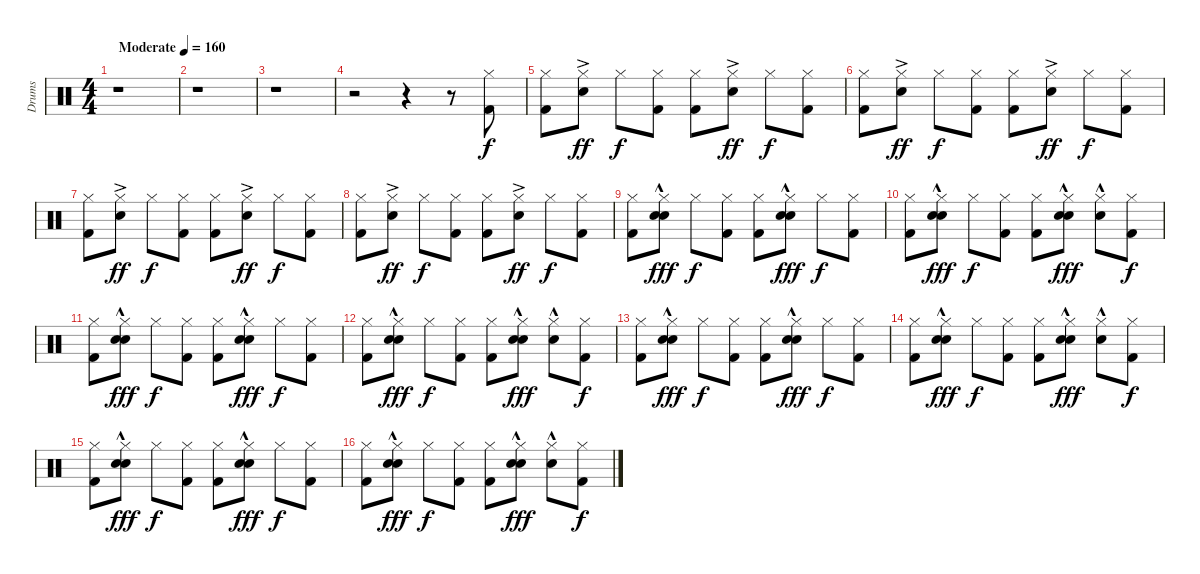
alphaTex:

\track ("Drums" "Drums") {instrument percussion}
\staff {score}
\articulation defaults
\ts (4 4)
\tempo (160 "Moderate")
\clef neutral
\ks c
r.1{dy f} |
r.1 |
r.1 |
r.2 r.4 r.8 ("Hi-Hat (closed)" "Kick (hit) 2").8 |
("Hi-Hat (closed)" "Kick (hit) 2").8 ("Hi-Hat (closed)" "Electric Snare (hit)"{ac}).8{dy ff} "Hi-Hat (closed)".8{dy f} ("Hi-Hat (closed)" "Kick (hit) 2").8 ("Hi-Hat (closed)" "Kick (hit) 2").8 ("Hi-Hat (closed)" "Electric Snare (hit)"{ac}).8{dy ff} "Hi-Hat (closed)".8{dy f} ("Hi-Hat (closed)" "Kick (hit) 2").8 |
("Hi-Hat (closed)" "Kick (hit) 2").8 ("Hi-Hat (closed)" "Electric Snare (hit)"{ac}).8{dy ff} "Hi-Hat (closed)".8{dy f} ("Hi-Hat (closed)" "Kick (hit) 2").8 ("Hi-Hat (closed)" "Kick (hit) 2").8 ("Hi-Hat (closed)" "Electric Snare (hit)"{ac}).8{dy ff} "Hi-Hat (closed)".8{dy f} ("Hi-Hat (closed)" "Kick (hit) 2").8 |
("Hi-Hat (closed)" "Kick (hit) 2").8 ("Hi-Hat (closed)" "Electric Snare (hit)"{ac}).8{dy ff} "Hi-Hat (closed)".8{dy f} ("Hi-Hat (closed)" "Kick (hit) 2").8 ("Hi-Hat (closed)" "Kick (hit) 2").8 ("Hi-Hat (closed)" "Electric Snare (hit)"{ac}).8{dy ff} "Hi-Hat (closed)".8{dy f} ("Hi-Hat (closed)" "Kick (hit) 2").8 |
("Hi-Hat (closed)" "Kick (hit) 2").8 ("Hi-Hat (closed)" "Electric Snare (hit)"{ac}).8{dy ff} "Hi-Hat (closed)".8{dy f} ("Hi-Hat (closed)" "Kick (hit) 2").8 ("Hi-Hat (closed)" "Kick (hit) 2").8 ("Hi-Hat (closed)" "Electric Snare (hit)"{ac}).8{dy ff} "Hi-Hat (closed)".8{dy f} ("Hi-Hat (closed)" "Kick (hit) 2").8 |
("Hi-Hat (closed)" "Kick (hit) 2").8 ("Hi-Hat (closed)" "Electric Snare (hit)" "Hand Clap (hit)"{hac}).8{dy fff} "Hi-Hat (closed)".8{dy f} ("Hi-Hat (closed)" "Kick (hit) 2").8 ("Hi-Hat (closed)" "Kick (hit) 2").8 ("Hi-Hat (closed)" "Electric Snare (hit)" "Hand Clap (hit)"{hac}).8{dy fff} "Hi-Hat (closed)".8{dy f} ("Hi-Hat (closed)" "Kick (hit) 2").8 |
("Hi-Hat (closed)" "Kick (hit) 2").8 ("Hi-Hat (closed)" "Electric Snare (hit)" "Hand Clap (hit)"{hac}).8{dy fff} "Hi-Hat (closed)".8{dy f} ("Hi-Hat (closed)" "Kick (hit) 2").8 ("Hi-Hat (closed)" "Kick (hit) 2").8 ("Hi-Hat (closed)" "Electric Snare (hit)" "Hand Clap (hit)"{hac}).8{dy fff} ("Hi-Hat (closed)" "Hand Clap (hit)"{hac}).8 ("Hi-Hat (closed)" "Kick (hit) 2").8{dy f} |
("Hi-Hat (closed)" "Kick (hit) 2").8 ("Hi-Hat (closed)" "Electric Snare (hit)" "Hand Clap (hit)"{hac}).8{dy fff} "Hi-Hat (closed)".8{dy f} ("Hi-Hat (closed)" "Kick (hit) 2").8 ("Hi-Hat (closed)" "Kick (hit) 2").8 ("Hi-Hat (closed)" "Electric Snare (hit)" "Hand Clap (hit)"{hac}).8{dy fff} "Hi-Hat (closed)".8{dy f} ("Hi-Hat (closed)" "Kick (hit) 2").8 |
("Hi-Hat (closed)" "Kick (hit) 2").8 ("Hi-Hat (closed)" "Electric Snare (hit)" "Hand Clap (hit)"{hac}).8{dy fff} "Hi-Hat (closed)".8{dy f} ("Hi-Hat (closed)" "Kick (hit) 2").8 ("Hi-Hat (closed)" "Kick (hit) 2").8 ("Hi-Hat (closed)" "Electric Snare (hit)" "Hand Clap (hit)"{hac}).8{dy fff} ("Hi-Hat (closed)" "Hand Clap (hit)"{hac}).8 ("Hi-Hat (closed)" "Kick (hit) 2").8{dy f} |
("Hi-Hat (closed)" "Kick (hit) 2").8 ("Hi-Hat (closed)" "Electric Snare (hit)" "Hand Clap (hit)"{hac}).8{dy fff} "Hi-Hat (closed)".8{dy f} ("Hi-Hat (closed)" "Kick (hit) 2").8 ("Hi-Hat (closed)" "Kick (hit) 2").8 ("Hi-Hat (closed)" "Electric Snare (hit)" "Hand Clap (hit)"{hac}).8{dy fff} "Hi-Hat (closed)".8{dy f} ("Hi-Hat (closed)" "Kick (hit) 2").8 |
("Hi-Hat (closed)" "Kick (hit) 2").8 ("Hi-Hat (closed)" "Electric Snare (hit)" "Hand Clap (hit)"{hac}).8{dy fff} "Hi-Hat (closed)".8{dy f} ("Hi-Hat (closed)" "Kick (hit) 2").8 ("Hi-Hat (closed)" "Kick (hit) 2").8 ("Hi-Hat (closed)" "Electric Snare (hit)" "Hand Clap (hit)"{hac}).8{dy fff} ("Hi-Hat (closed)" "Hand Clap (hit)"{hac}).8 ("Hi-Hat (closed)" "Kick (hit) 2").8{dy f} |
("Hi-Hat (closed)" "Kick (hit) 2").8 ("Hi-Hat (closed)" "Electric Snare (hit)" "Hand Clap (hit)"{hac}).8{dy fff} "Hi-Hat (closed)".8{dy f} ("Hi-Hat (closed)" "Kick (hit) 2").8 ("Hi-Hat (closed)" "Kick (hit) 2").8 ("Hi-Hat (closed)" "Electric Snare (hit)" "Hand Clap (hit)"{hac}).8{dy fff} "Hi-Hat (closed)".8{dy f} ("Hi-Hat (closed)" "Kick (hit) 2").8 |
("Hi-Hat (closed)" "Kick (hit) 2").8 ("Hi-Hat (closed)" "Electric Snare (hit)" "Hand Clap (hit)"{hac}).8{dy fff} "Hi-Hat (closed)".8{dy f} ("Hi-Hat (closed)" "Kick (hit) 2").8 ("Hi-Hat (closed)" "Kick (hit) 2").8 ("Hi-Hat (closed)" "Electric Snare (hit)" "Hand Clap (hit)"{hac}).8{dy fff} ("Hi-Hat (closed)" "Hand Clap (hit)"{hac}).8 ("Hi-Hat (closed)" "Kick (hit) 2").8{dy f}
